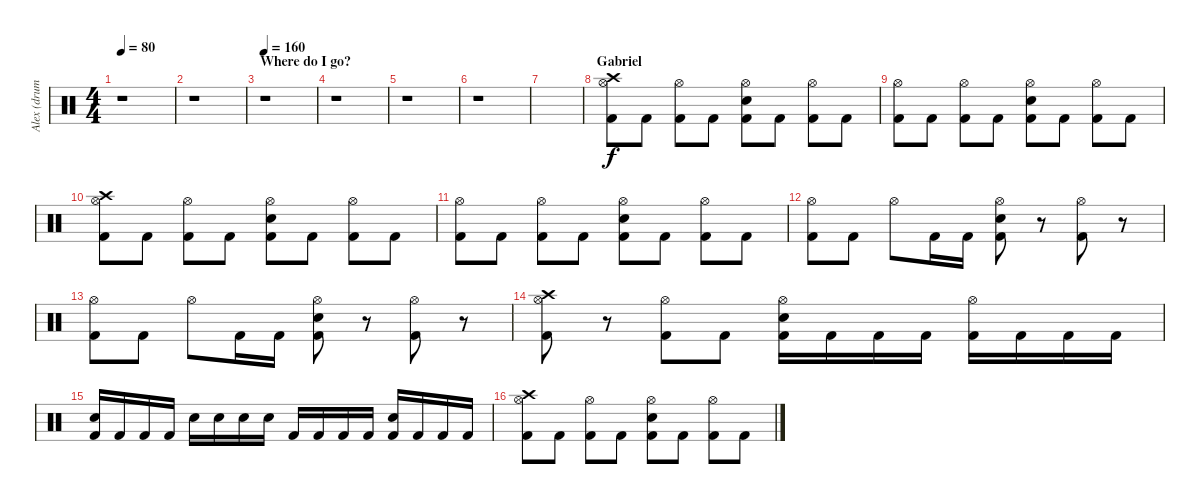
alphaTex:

\track ("Alex (drums)" "Alex (drum") {instrument percussion}
\staff {score}
\articulation defaults
\ts (4 4)
\tempo 80
\clef neutral
\ks c
r.1{dy f} |
r.1 |
\section ("" "Where do I go?")
\tempo 160
r.1 |
r.1 |
r.1 |
r.1 |
|
\section ("" "Gabriel")
("Hi-Hat (open)" "Kick (hit) 2" "Crash high (hit)").8 "Kick (hit) 2".8 ("Hi-Hat (open)" "Kick (hit) 2").8 "Kick (hit) 2".8 ("Hi-Hat (open)" "Snare (hit) 2" "Kick (hit) 2").8 "Kick (hit) 2".8 ("Hi-Hat (open)" "Kick (hit) 2").8 "Kick (hit) 2".8 |
("Hi-Hat (open)" "Kick (hit) 2").8 "Kick (hit) 2".8 ("Hi-Hat (open)" "Kick (hit) 2").8 "Kick (hit) 2".8 ("Hi-Hat (open)" "Snare (hit) 2" "Kick (hit) 2").8 "Kick (hit) 2".8 ("Hi-Hat (open)" "Kick (hit) 2").8 "Kick (hit) 2".8 |
("Hi-Hat (open)" "Kick (hit) 2" "Crash high (hit)").8 "Kick (hit) 2".8 ("Hi-Hat (open)" "Kick (hit) 2").8 "Kick (hit) 2".8 ("Hi-Hat (open)" "Snare (hit) 2" "Kick (hit) 2").8 "Kick (hit) 2".8 ("Hi-Hat (open)" "Kick (hit) 2").8 "Kick (hit) 2".8 |
("Hi-Hat (open)" "Kick (hit) 2").8 "Kick (hit) 2".8 ("Hi-Hat (open)" "Kick (hit) 2").8 "Kick (hit) 2".8 ("Hi-Hat (open)" "Snare (hit) 2" "Kick (hit) 2").8 "Kick (hit) 2".8 ("Hi-Hat (open)" "Kick (hit) 2").8 "Kick (hit) 2".8 |
("Hi-Hat (open)" "Kick (hit) 2").8 "Kick (hit) 2".8 "Hi-Hat (open)".8 "Kick (hit) 2".16 "Kick (hit) 2".16 ("Hi-Hat (open)" "Snare (hit) 2" "Kick (hit) 2").8 r.8 ("Hi-Hat (open)" "Kick (hit) 2").8 r.8 |
("Hi-Hat (open)" "Kick (hit) 2").8 "Kick (hit) 2".8 "Hi-Hat (open)".8 "Kick (hit) 2".16 "Kick (hit) 2".16 ("Hi-Hat (open)" "Snare (hit) 2" "Kick (hit) 2").8 r.8 ("Hi-Hat (open)" "Kick (hit) 2").8 r.8 |
("Hi-Hat (open)" "Kick (hit) 2" "Crash high (hit)").8 r.8 ("Hi-Hat (open)" "Kick (hit) 2").8 "Kick (hit) 2".8 ("Hi-Hat (open)" "Snare (hit) 2" "Kick (hit) 2").16 "Kick (hit) 2".16 "Kick (hit) 2".16 "Kick (hit) 2".16 ("Hi-Hat (open)" "Kick (hit) 2").16 "Kick (hit) 2".16 "Kick (hit) 2".16 "Kick (hit) 2".16 |
("Snare (hit) 2" "Kick (hit) 2").16 "Kick (hit) 2".16 "Kick (hit) 2".16 "Kick (hit) 2".16 "Snare (hit) 2".16 "Snare (hit) 2".16 "Snare (hit) 2".16 "Snare (hit) 2".16 "Kick (hit) 2".16 "Kick (hit) 2".16 "Kick (hit) 2".16 "Kick (hit) 2".16 ("Snare (hit) 2" "Kick (hit) 2").16 "Kick (hit) 2".16 "Kick (hit) 2".16 "Kick (hit) 2".16 |
("Hi-Hat (open)" "Kick (hit) 2" "Crash high (hit)").8 "Kick (hit) 2".8 ("Hi-Hat (open)" "Kick (hit) 2").8 "Kick (hit) 2".8 ("Hi-Hat (open)" "Snare (hit) 2" "Kick (hit) 2").8 "Kick (hit) 2".8 ("Hi-Hat (open)" "Kick (hit) 2").8 "Kick (hit) 2".8
